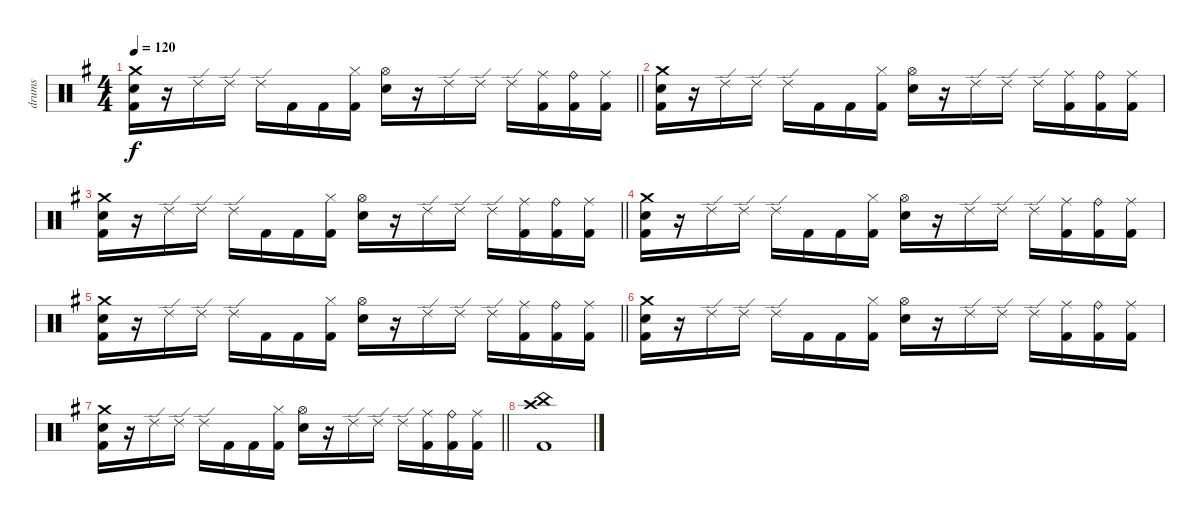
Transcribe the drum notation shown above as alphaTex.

\track ("drums" "drums") {instrument percussion}
\staff {score}
\articulation defaults
\ts (4 4)
\tempo 120
\clef neutral
\barLineRight lightlight
\ks g
("Crash medium (hit)" "Electric Snare (hit)" "Kick (hit) 2").16{dy f} r.16 "Ride (edge) 2".16 "Ride (edge) 2".16 "Ride (edge) 2".16 "Kick (hit) 2".16 "Kick (hit) 2".16 ("Hi-Hat (closed)" "Kick (hit) 2").16 ("Hi-Hat (open)" "Electric Snare (hit)").16 r.16 "Ride (edge) 2".16 "Ride (edge) 2".16 "Ride (edge) 2".16 ("Ride (middle)" "Kick (hit) 2").16 ("Ride (bell)" "Kick (hit) 2").16 ("Ride (middle)" "Kick (hit) 2").16 |
("Crash medium (hit)" "Electric Snare (hit)" "Kick (hit) 2").16 r.16 "Ride (edge) 2".16 "Ride (edge) 2".16 "Ride (edge) 2".16 "Kick (hit) 2".16 "Kick (hit) 2".16 ("Hi-Hat (closed)" "Kick (hit) 2").16 ("Hi-Hat (open)" "Electric Snare (hit)").16 r.16 "Ride (edge) 2".16 "Ride (edge) 2".16 "Ride (edge) 2".16 ("Ride (middle)" "Kick (hit) 2").16 ("Ride (bell)" "Kick (hit) 2").16 ("Ride (middle)" "Kick (hit) 2").16 |
\barLineRight lightlight
("Crash medium (hit)" "Electric Snare (hit)" "Kick (hit) 2").16 r.16 "Ride (edge) 2".16 "Ride (edge) 2".16 "Ride (edge) 2".16 "Kick (hit) 2".16 "Kick (hit) 2".16 ("Hi-Hat (closed)" "Kick (hit) 2").16 ("Hi-Hat (open)" "Electric Snare (hit)").16 r.16 "Ride (edge) 2".16 "Ride (edge) 2".16 "Ride (edge) 2".16 ("Ride (middle)" "Kick (hit) 2").16 ("Ride (bell)" "Kick (hit) 2").16 ("Ride (middle)" "Kick (hit) 2").16 |
("Crash medium (hit)" "Electric Snare (hit)" "Kick (hit) 2").16 r.16 "Ride (edge) 2".16 "Ride (edge) 2".16 "Ride (edge) 2".16 "Kick (hit) 2".16 "Kick (hit) 2".16 ("Hi-Hat (closed)" "Kick (hit) 2").16 ("Hi-Hat (open)" "Electric Snare (hit)").16 r.16 "Ride (edge) 2".16 "Ride (edge) 2".16 "Ride (edge) 2".16 ("Ride (middle)" "Kick (hit) 2").16 ("Ride (bell)" "Kick (hit) 2").16 ("Ride (middle)" "Kick (hit) 2").16 |
\barLineRight lightlight
("Crash medium (hit)" "Electric Snare (hit)" "Kick (hit) 2").16 r.16 "Ride (edge) 2".16 "Ride (edge) 2".16 "Ride (edge) 2".16 "Kick (hit) 2".16 "Kick (hit) 2".16 ("Hi-Hat (closed)" "Kick (hit) 2").16 ("Hi-Hat (open)" "Electric Snare (hit)").16 r.16 "Ride (edge) 2".16 "Ride (edge) 2".16 "Ride (edge) 2".16 ("Ride (middle)" "Kick (hit) 2").16 ("Ride (bell)" "Kick (hit) 2").16 ("Ride (middle)" "Kick (hit) 2").16 |
("Crash medium (hit)" "Electric Snare (hit)" "Kick (hit) 2").16 r.16 "Ride (edge) 2".16 "Ride (edge) 2".16 "Ride (edge) 2".16 "Kick (hit) 2".16 "Kick (hit) 2".16 ("Hi-Hat (closed)" "Kick (hit) 2").16 ("Hi-Hat (open)" "Electric Snare (hit)").16 r.16 "Ride (edge) 2".16 "Ride (edge) 2".16 "Ride (edge) 2".16 ("Ride (middle)" "Kick (hit) 2").16 ("Ride (bell)" "Kick (hit) 2").16 ("Ride (middle)" "Kick (hit) 2").16 |
\barLineRight lightlight
("Crash medium (hit)" "Electric Snare (hit)" "Kick (hit) 2").16 r.16 "Ride (edge) 2".16 "Ride (edge) 2".16 "Ride (edge) 2".16 "Kick (hit) 2".16 "Kick (hit) 2".16 ("Hi-Hat (closed)" "Kick (hit) 2").16 ("Hi-Hat (open)" "Electric Snare (hit)").16 r.16 "Ride (edge) 2".16 "Ride (edge) 2".16 "Ride (edge) 2".16 ("Ride (middle)" "Kick (hit) 2").16 ("Ride (bell)" "Kick (hit) 2").16 ("Ride (middle)" "Kick (hit) 2").16 |
("China (hit)" "Crash high (hit)" "Kick (hit) 2").1
